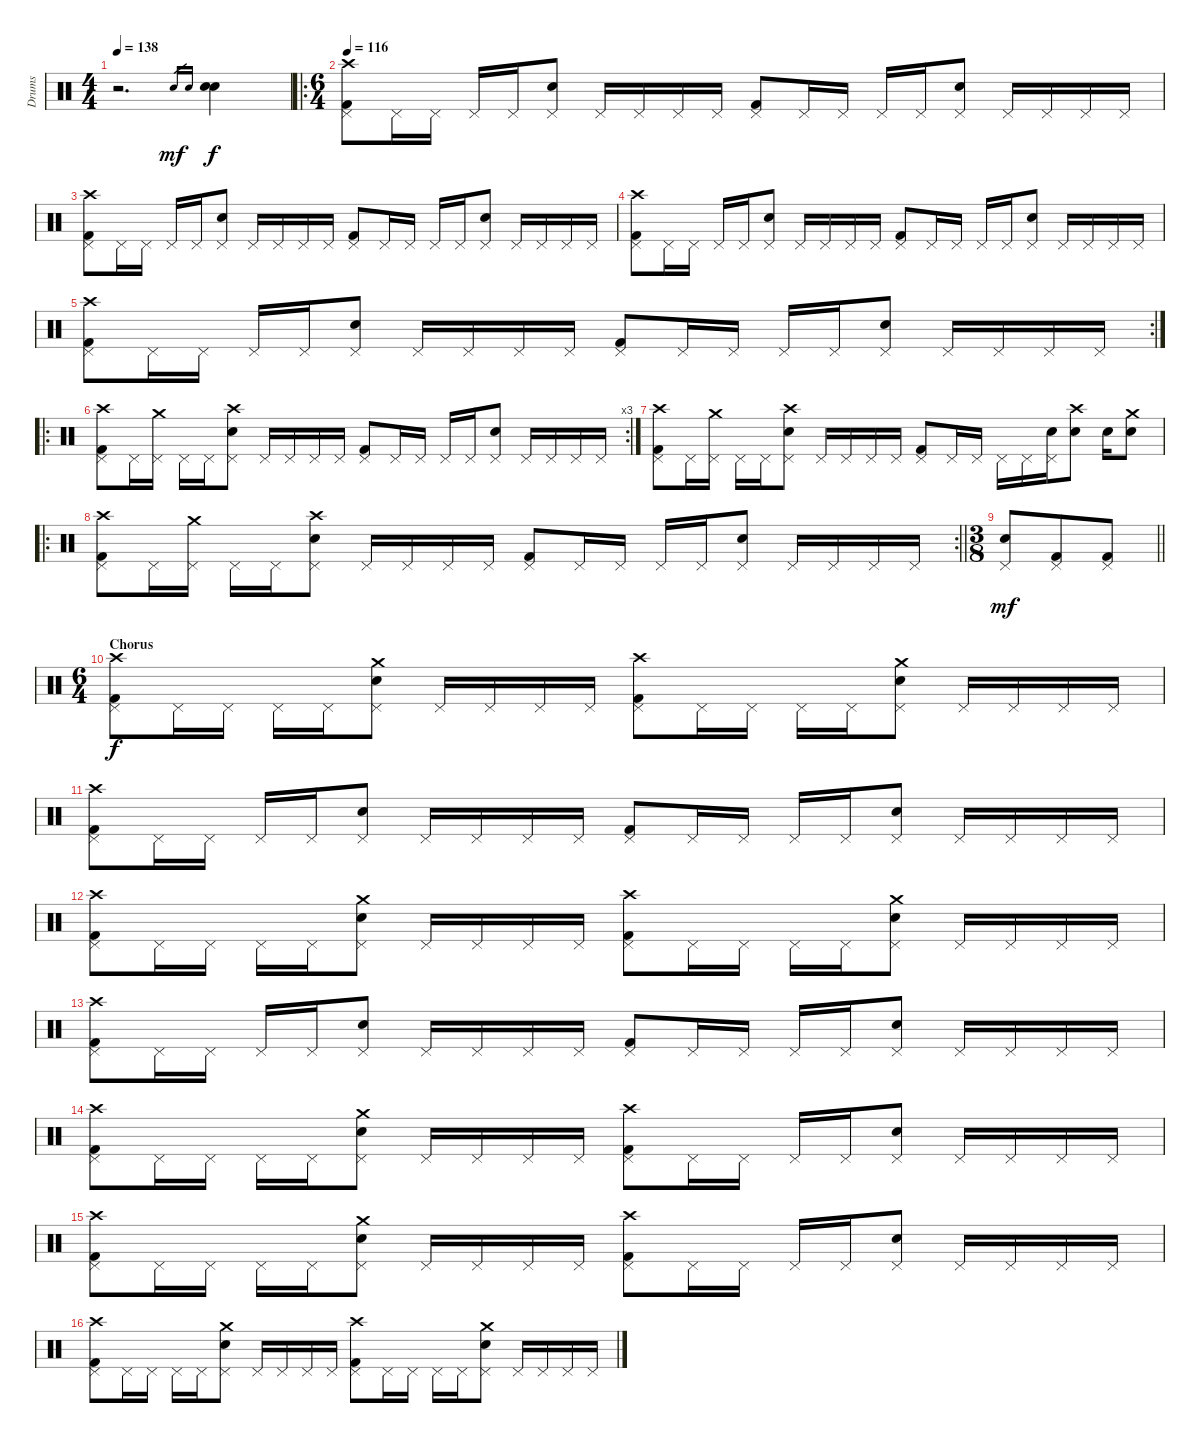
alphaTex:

\track ("Drums" "Drums") {instrument percussion}
\staff {score}
\articulation defaults
\ts (4 4)
\tempo 138
\clef neutral
\ks c
r.2{d dy f} "Snare (hit) 2".16{gr dy mf} "Snare (hit) 2".16{gr} ("Snare (hit) 2" "Snare (hit) 2").4{dy f} |
\ro
\ts (6 4)
\tempo 116
("Kick (hit) 2" "Pedal Hi-Hat (hit)" "Crash high (hit)").8 "Pedal Hi-Hat (hit)".16 "Pedal Hi-Hat (hit)".16 "Pedal Hi-Hat (hit)".16 "Pedal Hi-Hat (hit)".16 ("Snare (hit) 2" "Pedal Hi-Hat (hit)").8 "Pedal Hi-Hat (hit)".16 "Pedal Hi-Hat (hit)".16 "Pedal Hi-Hat (hit)".16 "Pedal Hi-Hat (hit)".16 ("Kick (hit) 2" "Pedal Hi-Hat (hit)").8 "Pedal Hi-Hat (hit)".16 "Pedal Hi-Hat (hit)".16 "Pedal Hi-Hat (hit)".16 "Pedal Hi-Hat (hit)".16 ("Snare (hit) 2" "Pedal Hi-Hat (hit)").8 "Pedal Hi-Hat (hit)".16 "Pedal Hi-Hat (hit)".16 "Pedal Hi-Hat (hit)".16 "Pedal Hi-Hat (hit)".16 |
("Kick (hit) 2" "Pedal Hi-Hat (hit)" "Crash high (hit)").8 "Pedal Hi-Hat (hit)".16 "Pedal Hi-Hat (hit)".16 "Pedal Hi-Hat (hit)".16 "Pedal Hi-Hat (hit)".16 ("Snare (hit) 2" "Pedal Hi-Hat (hit)").8 "Pedal Hi-Hat (hit)".16 "Pedal Hi-Hat (hit)".16 "Pedal Hi-Hat (hit)".16 "Pedal Hi-Hat (hit)".16 ("Kick (hit) 2" "Pedal Hi-Hat (hit)").8 "Pedal Hi-Hat (hit)".16 "Pedal Hi-Hat (hit)".16 "Pedal Hi-Hat (hit)".16 "Pedal Hi-Hat (hit)".16 ("Snare (hit) 2" "Pedal Hi-Hat (hit)").8 "Pedal Hi-Hat (hit)".16 "Pedal Hi-Hat (hit)".16 "Pedal Hi-Hat (hit)".16 "Pedal Hi-Hat (hit)".16 |
("Kick (hit) 2" "Pedal Hi-Hat (hit)" "Crash high (hit)").8 "Pedal Hi-Hat (hit)".16 "Pedal Hi-Hat (hit)".16 "Pedal Hi-Hat (hit)".16 "Pedal Hi-Hat (hit)".16 ("Snare (hit) 2" "Pedal Hi-Hat (hit)").8 "Pedal Hi-Hat (hit)".16 "Pedal Hi-Hat (hit)".16 "Pedal Hi-Hat (hit)".16 "Pedal Hi-Hat (hit)".16 ("Kick (hit) 2" "Pedal Hi-Hat (hit)").8 "Pedal Hi-Hat (hit)".16 "Pedal Hi-Hat (hit)".16 "Pedal Hi-Hat (hit)".16 "Pedal Hi-Hat (hit)".16 ("Snare (hit) 2" "Pedal Hi-Hat (hit)").8 "Pedal Hi-Hat (hit)".16 "Pedal Hi-Hat (hit)".16 "Pedal Hi-Hat (hit)".16 "Pedal Hi-Hat (hit)".16 |
\rc 2
("Kick (hit) 2" "Pedal Hi-Hat (hit)" "Crash high (hit)").8 "Pedal Hi-Hat (hit)".16 "Pedal Hi-Hat (hit)".16 "Pedal Hi-Hat (hit)".16 "Pedal Hi-Hat (hit)".16 ("Snare (hit) 2" "Pedal Hi-Hat (hit)").8 "Pedal Hi-Hat (hit)".16 "Pedal Hi-Hat (hit)".16 "Pedal Hi-Hat (hit)".16 "Pedal Hi-Hat (hit)".16 ("Kick (hit) 2" "Pedal Hi-Hat (hit)").8 "Pedal Hi-Hat (hit)".16 "Pedal Hi-Hat (hit)".16 "Pedal Hi-Hat (hit)".16 "Pedal Hi-Hat (hit)".16 ("Snare (hit) 2" "Pedal Hi-Hat (hit)").8 "Pedal Hi-Hat (hit)".16 "Pedal Hi-Hat (hit)".16 "Pedal Hi-Hat (hit)".16 "Pedal Hi-Hat (hit)".16 |
\ro
\rc 3
("Kick (hit) 2" "Pedal Hi-Hat (hit)" "Crash high (hit)").8 "Pedal Hi-Hat (hit)".16 ("Pedal Hi-Hat (hit)" "Crash medium (hit)").16 "Pedal Hi-Hat (hit)".16 "Pedal Hi-Hat (hit)".16 ("Snare (hit) 2" "Pedal Hi-Hat (hit)" "Crash high (hit)").8 "Pedal Hi-Hat (hit)".16 "Pedal Hi-Hat (hit)".16 "Pedal Hi-Hat (hit)".16 "Pedal Hi-Hat (hit)".16 ("Kick (hit) 2" "Pedal Hi-Hat (hit)").8 "Pedal Hi-Hat (hit)".16 "Pedal Hi-Hat (hit)".16 "Pedal Hi-Hat (hit)".16 "Pedal Hi-Hat (hit)".16 ("Snare (hit) 2" "Pedal Hi-Hat (hit)").8 "Pedal Hi-Hat (hit)".16 "Pedal Hi-Hat (hit)".16 "Pedal Hi-Hat (hit)".16 "Pedal Hi-Hat (hit)".16 |
("Kick (hit) 2" "Pedal Hi-Hat (hit)" "Crash high (hit)").8 "Pedal Hi-Hat (hit)".16 ("Pedal Hi-Hat (hit)" "Crash medium (hit)").16 "Pedal Hi-Hat (hit)".16 "Pedal Hi-Hat (hit)".16 ("Snare (hit) 2" "Pedal Hi-Hat (hit)" "Crash high (hit)").8 "Pedal Hi-Hat (hit)".16 "Pedal Hi-Hat (hit)".16 "Pedal Hi-Hat (hit)".16 "Pedal Hi-Hat (hit)".16 ("Kick (hit) 2" "Pedal Hi-Hat (hit)").8 "Pedal Hi-Hat (hit)".16 "Pedal Hi-Hat (hit)".16 "Pedal Hi-Hat (hit)".16 "Pedal Hi-Hat (hit)".16 ("Snare (hit) 2" "Pedal Hi-Hat (hit)").16 ("Snare (hit) 2" "Crash high (hit)").8 "Snare (hit) 2".16 ("Snare (hit) 2" "Crash medium (hit)").8 |
\ro
\rc 2
\barLineRight lightlight
("Kick (hit) 2" "Pedal Hi-Hat (hit)" "Crash high (hit)").8 "Pedal Hi-Hat (hit)".16 ("Pedal Hi-Hat (hit)" "Crash medium (hit)").16 "Pedal Hi-Hat (hit)".16 "Pedal Hi-Hat (hit)".16 ("Snare (hit) 2" "Pedal Hi-Hat (hit)" "Crash high (hit)").8 "Pedal Hi-Hat (hit)".16 "Pedal Hi-Hat (hit)".16 "Pedal Hi-Hat (hit)".16 "Pedal Hi-Hat (hit)".16 ("Kick (hit) 2" "Pedal Hi-Hat (hit)").8 "Pedal Hi-Hat (hit)".16 "Pedal Hi-Hat (hit)".16 "Pedal Hi-Hat (hit)".16 "Pedal Hi-Hat (hit)".16 ("Snare (hit) 2" "Pedal Hi-Hat (hit)").8 "Pedal Hi-Hat (hit)".16 "Pedal Hi-Hat (hit)".16 "Pedal Hi-Hat (hit)".16 "Pedal Hi-Hat (hit)".16 |
\ts (3 8)
\barLineRight lightlight
("Pedal Hi-Hat (hit)" "Snare (hit) 2").8{dy mf} ("Pedal Hi-Hat (hit)" "Kick (hit) 2").8 ("Pedal Hi-Hat (hit)" "Kick (hit) 2").8 |
\ts (6 4)
\section ("" "Chorus")
("Kick (hit) 2" "Pedal Hi-Hat (hit)" "Crash high (hit)").8{dy f} "Pedal Hi-Hat (hit)".16 "Pedal Hi-Hat (hit)".16 "Pedal Hi-Hat (hit)".16 "Pedal Hi-Hat (hit)".16 ("Snare (hit) 2" "Pedal Hi-Hat (hit)" "Crash medium (hit)").8 "Pedal Hi-Hat (hit)".16 "Pedal Hi-Hat (hit)".16 "Pedal Hi-Hat (hit)".16 "Pedal Hi-Hat (hit)".16 ("Kick (hit) 2" "Pedal Hi-Hat (hit)" "Crash high (hit)").8 "Pedal Hi-Hat (hit)".16 "Pedal Hi-Hat (hit)".16 "Pedal Hi-Hat (hit)".16 "Pedal Hi-Hat (hit)".16 ("Snare (hit) 2" "Pedal Hi-Hat (hit)" "Crash medium (hit)").8 "Pedal Hi-Hat (hit)".16 "Pedal Hi-Hat (hit)".16 "Pedal Hi-Hat (hit)".16 "Pedal Hi-Hat (hit)".16 |
("Kick (hit) 2" "Pedal Hi-Hat (hit)" "Crash high (hit)").8 "Pedal Hi-Hat (hit)".16 "Pedal Hi-Hat (hit)".16 "Pedal Hi-Hat (hit)".16 "Pedal Hi-Hat (hit)".16 ("Snare (hit) 2" "Pedal Hi-Hat (hit)").8 "Pedal Hi-Hat (hit)".16 "Pedal Hi-Hat (hit)".16 "Pedal Hi-Hat (hit)".16 "Pedal Hi-Hat (hit)".16 ("Kick (hit) 2" "Pedal Hi-Hat (hit)").8 "Pedal Hi-Hat (hit)".16 "Pedal Hi-Hat (hit)".16 "Pedal Hi-Hat (hit)".16 "Pedal Hi-Hat (hit)".16 ("Snare (hit) 2" "Pedal Hi-Hat (hit)").8 "Pedal Hi-Hat (hit)".16 "Pedal Hi-Hat (hit)".16 "Pedal Hi-Hat (hit)".16 "Pedal Hi-Hat (hit)".16 |
("Kick (hit) 2" "Pedal Hi-Hat (hit)" "Crash high (hit)").8 "Pedal Hi-Hat (hit)".16 "Pedal Hi-Hat (hit)".16 "Pedal Hi-Hat (hit)".16 "Pedal Hi-Hat (hit)".16 ("Snare (hit) 2" "Pedal Hi-Hat (hit)" "Crash medium (hit)").8 "Pedal Hi-Hat (hit)".16 "Pedal Hi-Hat (hit)".16 "Pedal Hi-Hat (hit)".16 "Pedal Hi-Hat (hit)".16 ("Kick (hit) 2" "Pedal Hi-Hat (hit)" "Crash high (hit)").8 "Pedal Hi-Hat (hit)".16 "Pedal Hi-Hat (hit)".16 "Pedal Hi-Hat (hit)".16 "Pedal Hi-Hat (hit)".16 ("Snare (hit) 2" "Pedal Hi-Hat (hit)" "Crash medium (hit)").8 "Pedal Hi-Hat (hit)".16 "Pedal Hi-Hat (hit)".16 "Pedal Hi-Hat (hit)".16 "Pedal Hi-Hat (hit)".16 |
("Kick (hit) 2" "Pedal Hi-Hat (hit)" "Crash high (hit)").8 "Pedal Hi-Hat (hit)".16 "Pedal Hi-Hat (hit)".16 "Pedal Hi-Hat (hit)".16 "Pedal Hi-Hat (hit)".16 ("Snare (hit) 2" "Pedal Hi-Hat (hit)").8 "Pedal Hi-Hat (hit)".16 "Pedal Hi-Hat (hit)".16 "Pedal Hi-Hat (hit)".16 "Pedal Hi-Hat (hit)".16 ("Kick (hit) 2" "Pedal Hi-Hat (hit)").8 "Pedal Hi-Hat (hit)".16 "Pedal Hi-Hat (hit)".16 "Pedal Hi-Hat (hit)".16 "Pedal Hi-Hat (hit)".16 ("Snare (hit) 2" "Pedal Hi-Hat (hit)").8 "Pedal Hi-Hat (hit)".16 "Pedal Hi-Hat (hit)".16 "Pedal Hi-Hat (hit)".16 "Pedal Hi-Hat (hit)".16 |
("Kick (hit) 2" "Pedal Hi-Hat (hit)" "Crash high (hit)").8 "Pedal Hi-Hat (hit)".16 "Pedal Hi-Hat (hit)".16 "Pedal Hi-Hat (hit)".16 "Pedal Hi-Hat (hit)".16 ("Snare (hit) 2" "Pedal Hi-Hat (hit)" "Crash medium (hit)").8 "Pedal Hi-Hat (hit)".16 "Pedal Hi-Hat (hit)".16 "Pedal Hi-Hat (hit)".16 "Pedal Hi-Hat (hit)".16 ("Kick (hit) 2" "Pedal Hi-Hat (hit)" "Crash high (hit)").8 "Pedal Hi-Hat (hit)".16 "Pedal Hi-Hat (hit)".16 "Pedal Hi-Hat (hit)".16 "Pedal Hi-Hat (hit)".16 ("Snare (hit) 2" "Pedal Hi-Hat (hit)").8 "Pedal Hi-Hat (hit)".16 "Pedal Hi-Hat (hit)".16 "Pedal Hi-Hat (hit)".16 "Pedal Hi-Hat (hit)".16 |
("Kick (hit) 2" "Pedal Hi-Hat (hit)" "Crash high (hit)").8 "Pedal Hi-Hat (hit)".16 "Pedal Hi-Hat (hit)".16 "Pedal Hi-Hat (hit)".16 "Pedal Hi-Hat (hit)".16 ("Snare (hit) 2" "Pedal Hi-Hat (hit)" "Crash medium (hit)").8 "Pedal Hi-Hat (hit)".16 "Pedal Hi-Hat (hit)".16 "Pedal Hi-Hat (hit)".16 "Pedal Hi-Hat (hit)".16 ("Kick (hit) 2" "Pedal Hi-Hat (hit)" "Crash high (hit)").8 "Pedal Hi-Hat (hit)".16 "Pedal Hi-Hat (hit)".16 "Pedal Hi-Hat (hit)".16 "Pedal Hi-Hat (hit)".16 ("Snare (hit) 2" "Pedal Hi-Hat (hit)").8 "Pedal Hi-Hat (hit)".16 "Pedal Hi-Hat (hit)".16 "Pedal Hi-Hat (hit)".16 "Pedal Hi-Hat (hit)".16 |
("Kick (hit) 2" "Pedal Hi-Hat (hit)" "Crash high (hit)").8 "Pedal Hi-Hat (hit)".16 "Pedal Hi-Hat (hit)".16 "Pedal Hi-Hat (hit)".16 "Pedal Hi-Hat (hit)".16 ("Snare (hit) 2" "Pedal Hi-Hat (hit)" "Crash medium (hit)").8 "Pedal Hi-Hat (hit)".16 "Pedal Hi-Hat (hit)".16 "Pedal Hi-Hat (hit)".16 "Pedal Hi-Hat (hit)".16 ("Kick (hit) 2" "Pedal Hi-Hat (hit)" "Crash high (hit)").8 "Pedal Hi-Hat (hit)".16 "Pedal Hi-Hat (hit)".16 "Pedal Hi-Hat (hit)".16 "Pedal Hi-Hat (hit)".16 ("Snare (hit) 2" "Pedal Hi-Hat (hit)" "Crash medium (hit)").8 "Pedal Hi-Hat (hit)".16 "Pedal Hi-Hat (hit)".16 "Pedal Hi-Hat (hit)".16 "Pedal Hi-Hat (hit)".16
